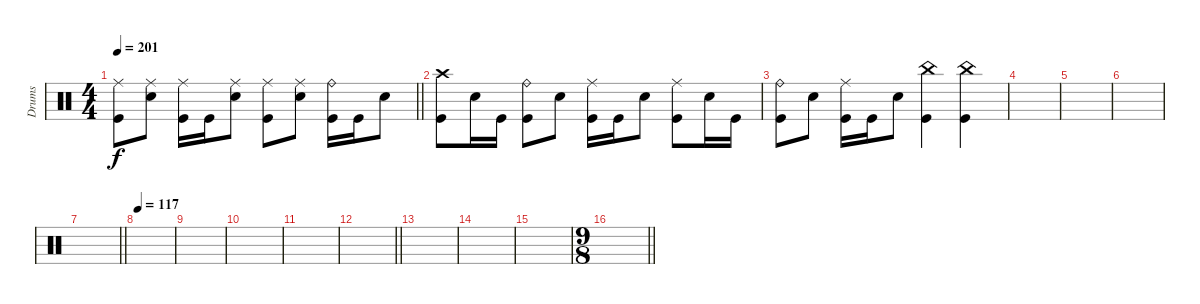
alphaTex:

\track ("Drums" "Drums") {instrument percussion}
\staff
\articulation defaults
\ts (4 4)
\tempo 201
\clef neutral
\barLineRight lightlight
\ks c
("Ride (middle)" "Kick (hit)").8{dy f} ("Ride (middle)" "Electric Snare (hit)").8 ("Ride (middle)" "Kick (hit)").16 "Kick (hit)".16 ("Ride (middle)" "Electric Snare (hit)").8 ("Ride (middle)" "Kick (hit)").8 ("Ride (middle)" "Electric Snare (hit)").8 ("Ride (bell)" "Kick (hit)").16 "Kick (hit)".16 "Electric Snare (hit)".8 |
\section ("" "")
("Crash high (hit)" "Kick (hit)").8 "Electric Snare (hit)".16 "Kick (hit)".16 ("Ride (bell)" "Kick (hit)").8 "Electric Snare (hit)".8 ("Ride (middle)" "Kick (hit)").16 "Kick (hit)".16 "Electric Snare (hit)".8 ("Ride (middle)" "Kick (hit)").8 "Electric Snare (hit)".16 "Kick (hit)".16 |
("Ride (bell)" "Kick (hit)").8 "Electric Snare (hit)".8 ("Ride (middle)" "Kick (hit)").16 "Kick (hit)".16 "Electric Snare (hit)".8 ("China (hit)" "Kick (hit)").4 ("China (hit)" "Kick (hit)").4 |
|
|
|
\barLineRight lightlight
|
\tempo 117
|
|
|
|
\barLineRight lightlight
|
|
|
|
\ts (9 8)
\barLineRight lightlight
